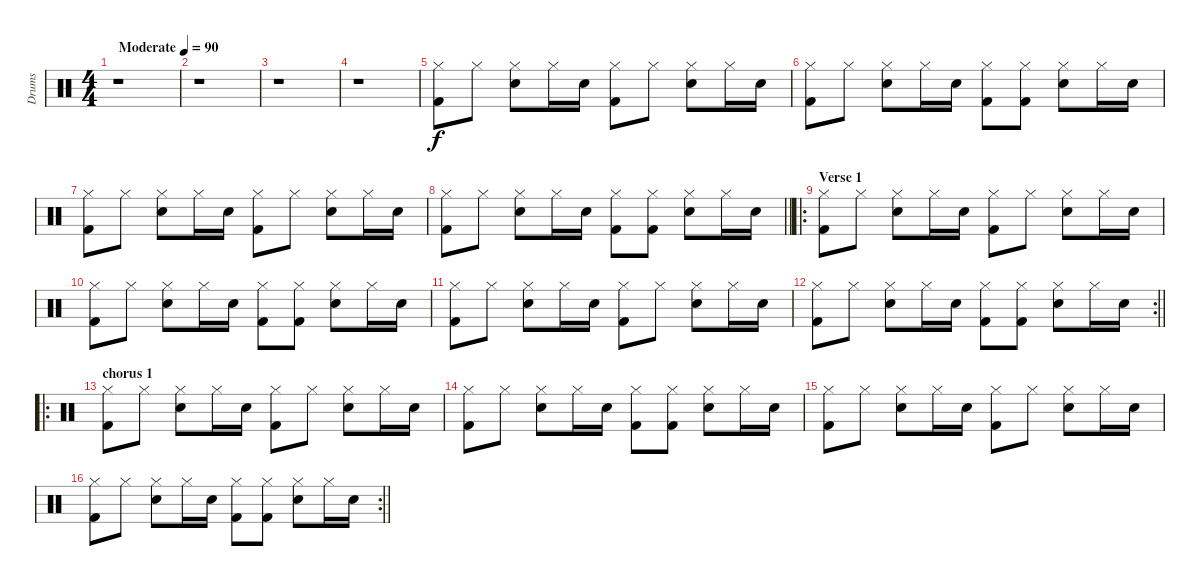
\track ("Drums" "Drums") {instrument percussion}
\staff
\articulation defaults
\ts (4 4)
\tempo (90 "Moderate")
\clef neutral
\ks c
r.1{dy f} |
r.1 |
r.1 |
r.1 |
("Hi-Hat (closed)" "Kick (hit) 2").8 "Hi-Hat (closed)".8 ("Hi-Hat (closed)" "Electric Snare (hit)").8 "Hi-Hat (closed)".16 "Electric Snare (hit)".16 ("Hi-Hat (closed)" "Kick (hit) 2").8 "Hi-Hat (closed)".8 ("Hi-Hat (closed)" "Electric Snare (hit)").8 "Hi-Hat (closed)".16 "Electric Snare (hit)".16 |
("Hi-Hat (closed)" "Kick (hit) 2").8 "Hi-Hat (closed)".8 ("Hi-Hat (closed)" "Electric Snare (hit)").8 "Hi-Hat (closed)".16 "Electric Snare (hit)".16 ("Hi-Hat (closed)" "Kick (hit) 2").8 ("Hi-Hat (closed)" "Kick (hit) 2").8 ("Hi-Hat (closed)" "Electric Snare (hit)").8 "Hi-Hat (closed)".16 "Electric Snare (hit)".16 |
("Hi-Hat (closed)" "Kick (hit) 2").8 "Hi-Hat (closed)".8 ("Hi-Hat (closed)" "Electric Snare (hit)").8 "Hi-Hat (closed)".16 "Electric Snare (hit)".16 ("Hi-Hat (closed)" "Kick (hit) 2").8 "Hi-Hat (closed)".8 ("Hi-Hat (closed)" "Electric Snare (hit)").8 "Hi-Hat (closed)".16 "Electric Snare (hit)".16 |
\barLineRight lightlight
("Hi-Hat (closed)" "Kick (hit) 2").8 "Hi-Hat (closed)".8 ("Hi-Hat (closed)" "Electric Snare (hit)").8 "Hi-Hat (closed)".16 "Electric Snare (hit)".16 ("Hi-Hat (closed)" "Kick (hit) 2").8 ("Hi-Hat (closed)" "Kick (hit) 2").8 ("Hi-Hat (closed)" "Electric Snare (hit)").8 "Hi-Hat (closed)".16 "Electric Snare (hit)".16 |
\ro
\section ("" "Verse 1")
("Hi-Hat (closed)" "Kick (hit) 2").8 "Hi-Hat (closed)".8 ("Hi-Hat (closed)" "Electric Snare (hit)").8 "Hi-Hat (closed)".16 "Electric Snare (hit)".16 ("Hi-Hat (closed)" "Kick (hit) 2").8 "Hi-Hat (closed)".8 ("Hi-Hat (closed)" "Electric Snare (hit)").8 "Hi-Hat (closed)".16 "Electric Snare (hit)".16 |
("Hi-Hat (closed)" "Kick (hit) 2").8 "Hi-Hat (closed)".8 ("Hi-Hat (closed)" "Electric Snare (hit)").8 "Hi-Hat (closed)".16 "Electric Snare (hit)".16 ("Hi-Hat (closed)" "Kick (hit) 2").8 ("Hi-Hat (closed)" "Kick (hit) 2").8 ("Hi-Hat (closed)" "Electric Snare (hit)").8 "Hi-Hat (closed)".16 "Electric Snare (hit)".16 |
("Hi-Hat (closed)" "Kick (hit) 2").8 "Hi-Hat (closed)".8 ("Hi-Hat (closed)" "Electric Snare (hit)").8 "Hi-Hat (closed)".16 "Electric Snare (hit)".16 ("Hi-Hat (closed)" "Kick (hit) 2").8 "Hi-Hat (closed)".8 ("Hi-Hat (closed)" "Electric Snare (hit)").8 "Hi-Hat (closed)".16 "Electric Snare (hit)".16 |
\rc 2
\barLineRight lightlight
("Hi-Hat (closed)" "Kick (hit) 2").8 "Hi-Hat (closed)".8 ("Hi-Hat (closed)" "Electric Snare (hit)").8 "Hi-Hat (closed)".16 "Electric Snare (hit)".16 ("Hi-Hat (closed)" "Kick (hit) 2").8 ("Hi-Hat (closed)" "Kick (hit) 2").8 ("Hi-Hat (closed)" "Electric Snare (hit)").8 "Hi-Hat (closed)".16 "Electric Snare (hit)".16 |
\ro
\section ("" "chorus 1")
("Hi-Hat (closed)" "Kick (hit) 2").8 "Hi-Hat (closed)".8 ("Hi-Hat (closed)" "Electric Snare (hit)").8 "Hi-Hat (closed)".16 "Electric Snare (hit)".16 ("Hi-Hat (closed)" "Kick (hit) 2").8 "Hi-Hat (closed)".8 ("Hi-Hat (closed)" "Electric Snare (hit)").8 "Hi-Hat (closed)".16 "Electric Snare (hit)".16 |
("Hi-Hat (closed)" "Kick (hit) 2").8 "Hi-Hat (closed)".8 ("Hi-Hat (closed)" "Electric Snare (hit)").8 "Hi-Hat (closed)".16 "Electric Snare (hit)".16 ("Hi-Hat (closed)" "Kick (hit) 2").8 ("Hi-Hat (closed)" "Kick (hit) 2").8 ("Hi-Hat (closed)" "Electric Snare (hit)").8 "Hi-Hat (closed)".16 "Electric Snare (hit)".16 |
("Hi-Hat (closed)" "Kick (hit) 2").8 "Hi-Hat (closed)".8 ("Hi-Hat (closed)" "Electric Snare (hit)").8 "Hi-Hat (closed)".16 "Electric Snare (hit)".16 ("Hi-Hat (closed)" "Kick (hit) 2").8 "Hi-Hat (closed)".8 ("Hi-Hat (closed)" "Electric Snare (hit)").8 "Hi-Hat (closed)".16 "Electric Snare (hit)".16 |
\rc 2
\barLineRight lightlight
("Hi-Hat (closed)" "Kick (hit) 2").8 "Hi-Hat (closed)".8 ("Hi-Hat (closed)" "Electric Snare (hit)").8 "Hi-Hat (closed)".16 "Electric Snare (hit)".16 ("Hi-Hat (closed)" "Kick (hit) 2").8 ("Hi-Hat (closed)" "Kick (hit) 2").8 ("Hi-Hat (closed)" "Electric Snare (hit)").8 "Hi-Hat (closed)".16 "Electric Snare (hit)".16
